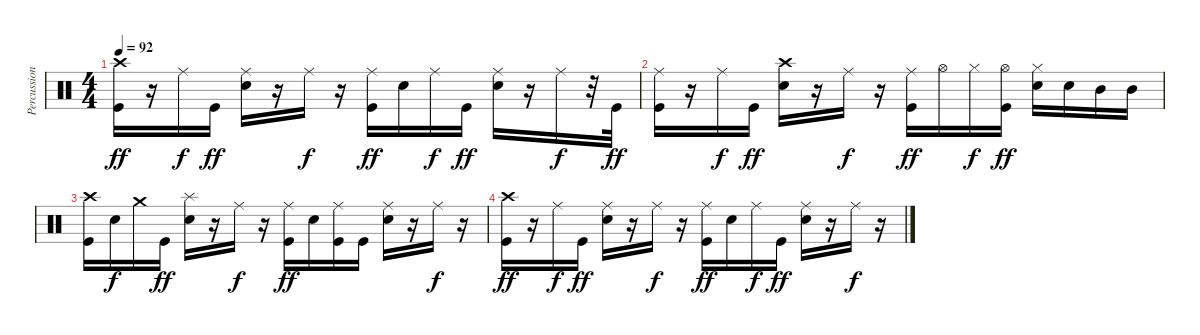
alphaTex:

\track ("Percussions" "Percussion") {instrument percussion}
\staff {score}
\articulation defaults
\ts (4 4)
\tempo 92
\clef neutral
\ks c
("Crash high (hit)" "Kick (hit)").16{dy ff} r.16 "Ride (middle)".16{dy f} "Kick (hit)".16{dy ff} ("Ride (middle)" "Snare (hit) 2").16 r.16 "Ride (middle)".16{dy f} r.16 ("Ride (middle)" "Kick (hit)").16{dy ff} "Snare (hit) 2".16 "Ride (middle)".16{dy f} "Kick (hit)".16{dy ff} ("Ride (middle)" "Snare (hit) 2").16 r.16 "Ride (middle)".16{dy f} r.32 "Kick (hit)".32{dy ff} |
("Ride (middle)" "Kick (hit)").16 r.16 "Ride (middle)".16{dy f} "Kick (hit)".16{dy ff} ("Crash high (hit)" "Snare (hit) 2").16 r.16 "Ride (middle)".16{dy f} r.16 ("Ride (middle)" "Kick (hit)").16{dy ff} "Hi-Hat (open)".16 "Hi-Hat (closed)".16{dy f} ("Hi-Hat (open)" "Kick (hit)").16{dy ff} ("Hi-Hat (closed)" "Snare (hit) 2").16 "Snare (hit) 2".16 "Mid Tom (hit)".16 "Mid Tom (hit)".16 |
("Crash high (hit)" "Kick (hit)").16 "Snare (hit) 2".16{dy f} "Crash medium (hit)".16 "Kick (hit)".16{dy ff} ("Splash (hit)" "Snare (hit) 2").16 r.16 "Ride (middle)".16{dy f} r.16 ("Ride (middle)" "Kick (hit)").16{dy ff} "Snare (hit) 2".16 ("Ride (middle)" "Kick (hit)").16 "Kick (hit)".16 ("Ride (middle)" "Snare (hit) 2").16 r.16 "Ride (middle)".16{dy f} r.16 |
("Crash high (hit)" "Kick (hit)").16{dy ff} r.16 "Ride (middle)".16{dy f} "Kick (hit)".16{dy ff} ("Ride (middle)" "Snare (hit) 2").16 r.16 "Ride (middle)".16{dy f} r.16 ("Ride (middle)" "Kick (hit)").16{dy ff} "Snare (hit) 2".16 "Ride (middle)".16{dy f} "Kick (hit)".16{dy ff} ("Ride (middle)" "Snare (hit) 2").16 r.16 "Ride (middle)".16{dy f} r.16
